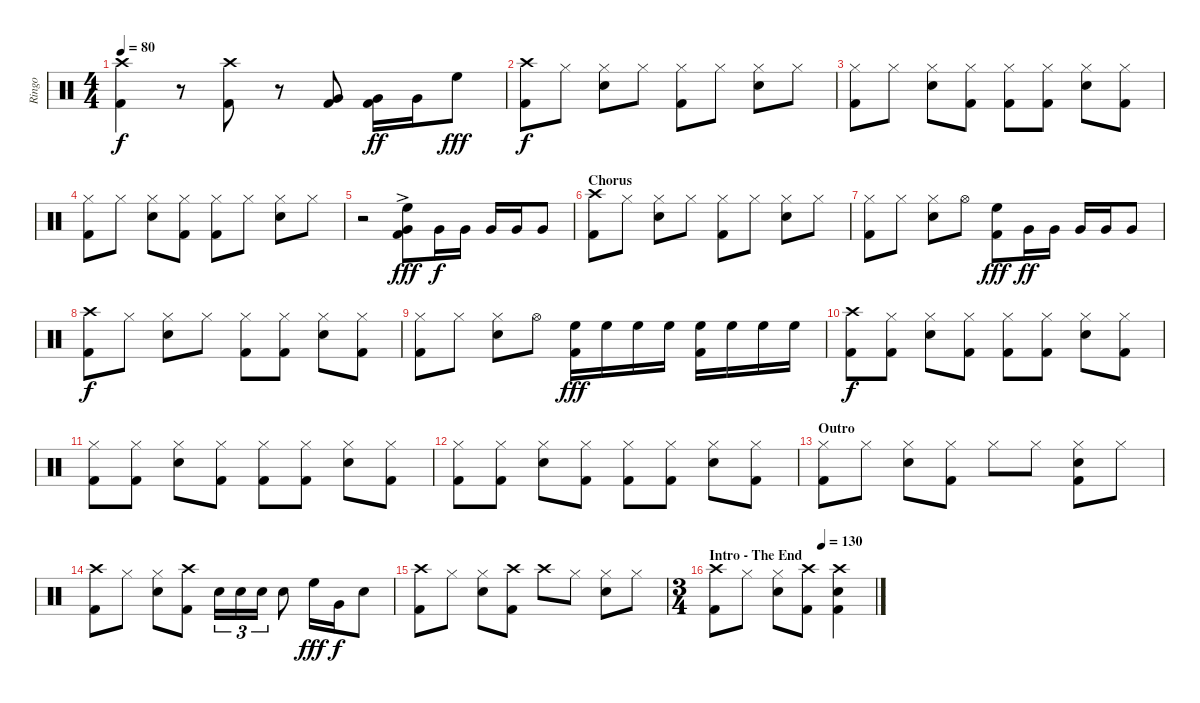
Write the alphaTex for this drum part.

\track ("Ringo" "Ringo") {instrument percussion}
\staff {score}
\articulation defaults
\ts (4 4)
\tempo 80
\clef neutral
\ks c
("Crash high (hit)" "Kick (hit) 2").4{dy f} r.8 ("Crash high (hit)" "Kick (hit) 2").8 r.8 ("Very Low Tom (hit)" "Kick (hit) 2").8 ("Very Low Tom (hit)" "Kick (hit) 2").16{dy ff} "Very Low Tom (hit)".16 "High Floor Tom (hit)".8{dy fff} |
("Crash high (hit)" "Kick (hit) 2").8{dy f} "Hi-Hat (closed)".8 ("Hi-Hat (closed)" "Snare (hit) 2").8 "Hi-Hat (closed)".8 ("Hi-Hat (closed)" "Kick (hit) 2").8 "Hi-Hat (closed)".8 ("Hi-Hat (closed)" "Snare (hit) 2").8 "Hi-Hat (closed)".8 |
("Hi-Hat (closed)" "Kick (hit) 2").8 "Hi-Hat (closed)".8 ("Hi-Hat (closed)" "Snare (hit) 2").8 ("Hi-Hat (closed)" "Kick (hit) 2").8 ("Hi-Hat (closed)" "Kick (hit) 2").8 ("Hi-Hat (closed)" "Kick (hit) 2").8 ("Hi-Hat (closed)" "Snare (hit) 2").8 ("Hi-Hat (closed)" "Kick (hit) 2").8 |
("Hi-Hat (closed)" "Kick (hit) 2").8 "Hi-Hat (closed)".8 ("Hi-Hat (closed)" "Snare (hit) 2").8 ("Hi-Hat (closed)" "Kick (hit) 2").8 ("Hi-Hat (closed)" "Kick (hit) 2").8 "Hi-Hat (closed)".8 ("Hi-Hat (closed)" "Snare (hit) 2").8 "Hi-Hat (closed)".8 |
r.2 ("High Floor Tom (hit)"{ac} "Very Low Tom (hit)" "Kick (hit) 2").8{dy fff} "Very Low Tom (hit)".16{dy f} "Very Low Tom (hit)".16 "Very Low Tom (hit)".16 "Very Low Tom (hit)".16 "Very Low Tom (hit)".8 |
\section ("" "Chorus")
("Crash high (hit)" "Kick (hit) 2").8 "Hi-Hat (closed)".8 ("Hi-Hat (closed)" "Snare (hit) 2").8 "Hi-Hat (closed)".8 ("Hi-Hat (closed)" "Kick (hit) 2").8 "Hi-Hat (closed)".8 ("Hi-Hat (closed)" "Snare (hit) 2").8 "Hi-Hat (closed)".8 |
("Hi-Hat (closed)" "Kick (hit) 2").8 "Hi-Hat (closed)".8 ("Hi-Hat (closed)" "Snare (hit) 2").8 "Hi-Hat (open)".8 ("High Floor Tom (hit)" "Kick (hit) 2").8{dy fff} "Very Low Tom (hit)".16{dy ff} "Very Low Tom (hit)".16 "Very Low Tom (hit)".16 "Very Low Tom (hit)".16 "Very Low Tom (hit)".8 |
("Crash high (hit)" "Kick (hit) 2").8{dy f} "Hi-Hat (closed)".8 ("Hi-Hat (closed)" "Snare (hit) 2").8 "Hi-Hat (closed)".8 ("Hi-Hat (closed)" "Kick (hit) 2").8 ("Hi-Hat (closed)" "Kick (hit) 2").8 ("Hi-Hat (closed)" "Snare (hit) 2").8 ("Hi-Hat (closed)" "Kick (hit) 2").8 |
("Hi-Hat (closed)" "Kick (hit) 2").8 "Hi-Hat (closed)".8 ("Hi-Hat (closed)" "Snare (hit) 2").8 "Hi-Hat (open)".8 ("High Floor Tom (hit)" "Kick (hit) 2").16{dy fff} "High Floor Tom (hit)".16 "High Floor Tom (hit)".16 "High Floor Tom (hit)".16 ("High Floor Tom (hit)" "Kick (hit) 2").16 "High Floor Tom (hit)".16 "High Floor Tom (hit)".16 "High Floor Tom (hit)".16 |
("Crash high (hit)" "Kick (hit) 2").8{dy f} ("Hi-Hat (closed)" "Kick (hit) 2").8 ("Hi-Hat (closed)" "Snare (hit) 2").8 ("Hi-Hat (closed)" "Kick (hit) 2").8 ("Hi-Hat (closed)" "Kick (hit) 2").8 ("Hi-Hat (closed)" "Kick (hit) 2").8 ("Hi-Hat (closed)" "Snare (hit) 2").8 ("Hi-Hat (closed)" "Kick (hit) 2").8 |
("Hi-Hat (closed)" "Kick (hit) 2").8 ("Hi-Hat (closed)" "Kick (hit) 2").8 ("Hi-Hat (closed)" "Snare (hit) 2").8 ("Hi-Hat (closed)" "Kick (hit) 2").8 ("Hi-Hat (closed)" "Kick (hit) 2").8 ("Hi-Hat (closed)" "Kick (hit) 2").8 ("Hi-Hat (closed)" "Snare (hit) 2").8 ("Hi-Hat (closed)" "Kick (hit) 2").8 |
("Hi-Hat (closed)" "Kick (hit) 2").8 ("Hi-Hat (closed)" "Kick (hit) 2").8 ("Hi-Hat (closed)" "Snare (hit) 2").8 ("Hi-Hat (closed)" "Kick (hit) 2").8 ("Hi-Hat (closed)" "Kick (hit) 2").8 ("Hi-Hat (closed)" "Kick (hit) 2").8 ("Hi-Hat (closed)" "Snare (hit) 2").8 ("Hi-Hat (closed)" "Kick (hit) 2").8 |
\section ("" "Outro")
("Hi-Hat (closed)" "Kick (hit) 2").8 "Hi-Hat (closed)".8 ("Hi-Hat (closed)" "Snare (hit) 2").8 ("Hi-Hat (closed)" "Kick (hit) 2").8 "Hi-Hat (closed)".8 "Hi-Hat (closed)".8 ("Hi-Hat (closed)" "Snare (hit) 2" "Kick (hit) 2").8 "Hi-Hat (closed)".8 |
("Crash high (hit)" "Kick (hit) 2").8 "Hi-Hat (closed)".8 ("Hi-Hat (closed)" "Snare (hit) 2").8 ("Crash high (hit)" "Kick (hit) 2").8 "Snare (hit) 2".16{tu (3 2)} "Snare (hit) 2".16{tu (3 2)} "Snare (hit) 2".16{tu (3 2)} "Snare (hit) 2".8 "High Floor Tom (hit)".16{dy fff} "Very Low Tom (hit)".16{dy f} "Snare (hit) 2".8 |
("Crash high (hit)" "Kick (hit) 2").8 "Hi-Hat (closed)".8 ("Hi-Hat (closed)" "Snare (hit) 2").8 ("Crash high (hit)" "Kick (hit) 2").8 "Crash high (hit)".8 "Hi-Hat (closed)".8 ("Hi-Hat (closed)" "Snare (hit) 2").8 "Hi-Hat (closed)".8 |
\ts (3 4)
\section ("" "Intro - The End")
\tempo (130 0.6666666666666666)
("Crash high (hit)" "Kick (hit) 2").8 "Hi-Hat (closed)".8 ("Hi-Hat (closed)" "Snare (hit) 2").8 ("Crash high (hit)" "Kick (hit) 2").8 ("Crash high (hit)" "Snare (hit) 2" "Kick (hit) 2").4
